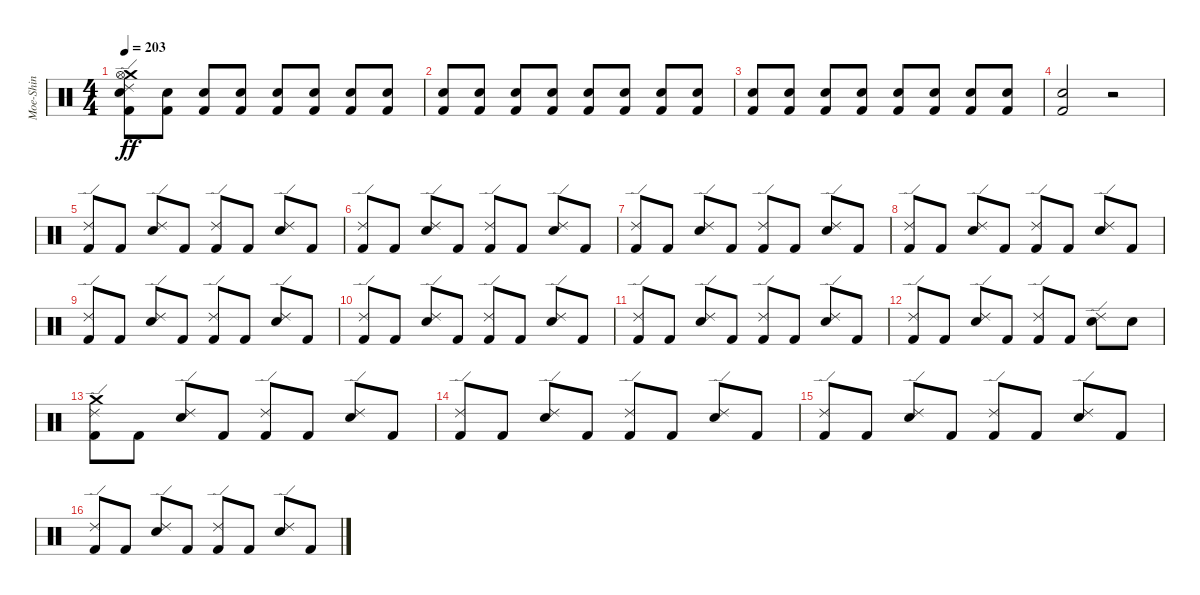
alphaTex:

\track ("Moe-Shin" "Moe-Shin") {instrument percussion}
\staff {score}
\articulation defaults
\ts (4 4)
\tempo 203
\clef neutral
\ks c
("Crash medium (hit)" "Hi-Hat (open)" "Ride (edge) 2" "Kick (hit) 2" "Snare (hit) 2").8{dy ff} ("Kick (hit) 2" "Snare (hit) 2").8 ("Snare (hit) 2" "Kick (hit) 2").8 ("Snare (hit) 2" "Kick (hit) 2").8{volume 6} ("Kick (hit) 2" "Snare (hit) 2").8 ("Snare (hit) 2" "Kick (hit) 2").8{volume 6} ("Kick (hit) 2" "Snare (hit) 2").8 ("Kick (hit) 2" "Snare (hit) 2").8{volume 7} |
("Snare (hit) 2" "Kick (hit) 2").8 ("Kick (hit) 2" "Snare (hit) 2").8{volume 8} ("Snare (hit) 2" "Kick (hit) 2").8 ("Kick (hit) 2" "Snare (hit) 2").8{volume 9} ("Snare (hit) 2" "Kick (hit) 2").8 ("Kick (hit) 2" "Snare (hit) 2").8{volume 10} ("Snare (hit) 2" "Kick (hit) 2").8 ("Snare (hit) 2" "Kick (hit) 2").8{volume 11} |
("Snare (hit) 2" "Kick (hit) 2").8 ("Snare (hit) 2" "Kick (hit) 2").8{volume 12} ("Snare (hit) 2" "Kick (hit) 2").8 ("Snare (hit) 2" "Kick (hit) 2").8{volume 14} ("Kick (hit) 2" "Snare (hit) 2").8 ("Kick (hit) 2" "Snare (hit) 2").8{volume 15} ("Snare (hit) 2" "Kick (hit) 2").8 ("Snare (hit) 2" "Kick (hit) 2").8{volume 16} |
("Kick (hit) 2" "Snare (hit) 2").2 r.2 |
("Kick (hit) 2" "Ride (edge) 2").8 "Kick (hit) 2".8 ("Ride (edge) 2" "Snare (hit) 2").8 "Kick (hit) 2".8 ("Ride (edge) 2" "Kick (hit) 2").8 "Kick (hit) 2".8 ("Ride (edge) 2" "Snare (hit) 2").8 "Kick (hit) 2".8 |
("Kick (hit) 2" "Ride (edge) 2").8 "Kick (hit) 2".8 ("Snare (hit) 2" "Ride (edge) 2").8 "Kick (hit) 2".8 ("Kick (hit) 2" "Ride (edge) 2").8 "Kick (hit) 2".8 ("Ride (edge) 2" "Snare (hit) 2").8 "Kick (hit) 2".8 |
("Kick (hit) 2" "Ride (edge) 2").8 "Kick (hit) 2".8 ("Snare (hit) 2" "Ride (edge) 2").8 "Kick (hit) 2".8 ("Kick (hit) 2" "Ride (edge) 2").8 "Kick (hit) 2".8 ("Snare (hit) 2" "Ride (edge) 2").8 "Kick (hit) 2".8 |
("Kick (hit) 2" "Ride (edge) 2").8 "Kick (hit) 2".8 ("Ride (edge) 2" "Snare (hit) 2").8 "Kick (hit) 2".8 ("Ride (edge) 2" "Kick (hit) 2").8 "Kick (hit) 2".8 ("Snare (hit) 2" "Ride (edge) 2").8 "Kick (hit) 2".8 |
("Ride (edge) 2" "Kick (hit) 2").8 "Kick (hit) 2".8 ("Ride (edge) 2" "Snare (hit) 2").8 "Kick (hit) 2".8 ("Kick (hit) 2" "Ride (edge) 2").8 "Kick (hit) 2".8 ("Ride (edge) 2" "Snare (hit) 2").8 "Kick (hit) 2".8 |
("Kick (hit) 2" "Ride (edge) 2").8 "Kick (hit) 2".8 ("Ride (edge) 2" "Snare (hit) 2").8 "Kick (hit) 2".8 ("Kick (hit) 2" "Ride (edge) 2").8 "Kick (hit) 2".8 ("Ride (edge) 2" "Snare (hit) 2").8 "Kick (hit) 2".8 |
("Ride (edge) 2" "Kick (hit) 2").8 "Kick (hit) 2".8 ("Ride (edge) 2" "Snare (hit) 2").8 "Kick (hit) 2".8 ("Kick (hit) 2" "Ride (edge) 2").8 "Kick (hit) 2".8 ("Ride (edge) 2" "Snare (hit) 2").8 "Kick (hit) 2".8 |
("Kick (hit) 2" "Ride (edge) 2").8 "Kick (hit) 2".8 ("Snare (hit) 2" "Ride (edge) 2").8 "Kick (hit) 2".8 ("Kick (hit) 2" "Ride (edge) 2").8 "Kick (hit) 2".8 ("Snare (hit) 2" "Ride (edge) 2").8 "Snare (hit) 2".8 |
("Kick (hit) 2" "Ride (edge) 2" "Crash medium (hit)").8 "Kick (hit) 2".8 ("Snare (hit) 2" "Ride (edge) 2").8 "Kick (hit) 2".8 ("Ride (edge) 2" "Kick (hit) 2").8 "Kick (hit) 2".8 ("Ride (edge) 2" "Snare (hit) 2").8 "Kick (hit) 2".8 |
("Kick (hit) 2" "Ride (edge) 2").8 "Kick (hit) 2".8 ("Snare (hit) 2" "Ride (edge) 2").8 "Kick (hit) 2".8 ("Kick (hit) 2" "Ride (edge) 2").8 "Kick (hit) 2".8 ("Snare (hit) 2" "Ride (edge) 2").8 "Kick (hit) 2".8 |
("Ride (edge) 2" "Kick (hit) 2").8 "Kick (hit) 2".8 ("Ride (edge) 2" "Snare (hit) 2").8 "Kick (hit) 2".8 ("Kick (hit) 2" "Ride (edge) 2").8 "Kick (hit) 2".8 ("Snare (hit) 2" "Ride (edge) 2").8 "Kick (hit) 2".8 |
("Ride (edge) 2" "Kick (hit) 2").8 "Kick (hit) 2".8 ("Ride (edge) 2" "Snare (hit) 2").8 "Kick (hit) 2".8 ("Ride (edge) 2" "Kick (hit) 2").8 "Kick (hit) 2".8 ("Snare (hit) 2" "Ride (edge) 2").8 "Kick (hit) 2".8
